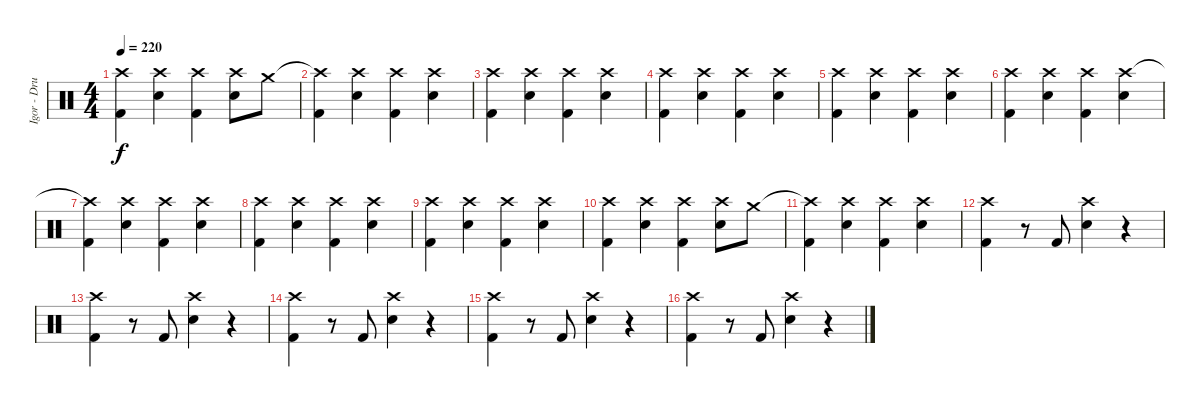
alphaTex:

\track ("Igor - Drums" "Igor - Dru") {instrument percussion}
\staff {score}
\articulation defaults
\ts (4 4)
\tempo 220
\clef neutral
\ks c
("Crash high (hit)" "Kick (hit) 2").4{dy f} ("Crash high (hit)" "Snare (hit) 2").4 ("Crash high (hit)" "Kick (hit) 2").4 ("Crash high (hit)" "Snare (hit) 2").8 "Crash medium (hit)".8 |
("Crash high (hit)"{t} "Kick (hit) 2").4 ("Crash high (hit)" "Snare (hit) 2").4 ("Crash high (hit)" "Kick (hit) 2").4 ("Crash high (hit)" "Snare (hit) 2").4 |
("Crash high (hit)" "Kick (hit) 2").4 ("Crash high (hit)" "Snare (hit) 2").4 ("Crash high (hit)" "Kick (hit) 2").4 ("Crash high (hit)" "Snare (hit) 2").4 |
("Crash high (hit)" "Kick (hit) 2").4 ("Crash high (hit)" "Snare (hit) 2").4 ("Crash high (hit)" "Kick (hit) 2").4 ("Crash high (hit)" "Snare (hit) 2").4 |
("Crash high (hit)" "Kick (hit) 2").4 ("Crash high (hit)" "Snare (hit) 2").4 ("Crash high (hit)" "Kick (hit) 2").4 ("Crash high (hit)" "Snare (hit) 2").4 |
("Crash high (hit)" "Kick (hit) 2").4 ("Crash high (hit)" "Snare (hit) 2").4 ("Crash high (hit)" "Kick (hit) 2").4 ("Crash high (hit)" "Snare (hit) 2").4 |
("Crash high (hit)"{t} "Kick (hit) 2").4 ("Crash high (hit)" "Snare (hit) 2").4 ("Crash high (hit)" "Kick (hit) 2").4 ("Crash high (hit)" "Snare (hit) 2").4 |
("Crash high (hit)" "Kick (hit) 2").4 ("Crash high (hit)" "Snare (hit) 2").4 ("Crash high (hit)" "Kick (hit) 2").4 ("Crash high (hit)" "Snare (hit) 2").4 |
("Crash high (hit)" "Kick (hit) 2").4 ("Crash high (hit)" "Snare (hit) 2").4 ("Crash high (hit)" "Kick (hit) 2").4 ("Crash high (hit)" "Snare (hit) 2").4 |
("Crash high (hit)" "Kick (hit) 2").4 ("Crash high (hit)" "Snare (hit) 2").4 ("Crash high (hit)" "Kick (hit) 2").4 ("Crash high (hit)" "Snare (hit) 2").8 "Crash medium (hit)".8 |
("Crash high (hit)"{t} "Kick (hit) 2").4 ("Crash high (hit)" "Snare (hit) 2").4 ("Crash high (hit)" "Kick (hit) 2").4 ("Crash high (hit)" "Snare (hit) 2").4 |
("Crash high (hit)" "Kick (hit) 2").4 r.8 "Kick (hit) 2".8 ("Crash high (hit)" "Snare (hit) 2").4 r.4 |
("Crash high (hit)" "Kick (hit) 2").4 r.8 "Kick (hit) 2".8 ("Crash high (hit)" "Snare (hit) 2").4 r.4 |
("Crash high (hit)" "Kick (hit) 2").4 r.8 "Kick (hit) 2".8 ("Crash high (hit)" "Snare (hit) 2").4 r.4 |
("Crash high (hit)" "Kick (hit) 2").4 r.8 "Kick (hit) 2".8 ("Crash high (hit)" "Snare (hit) 2").4 r.4 |
("Crash high (hit)" "Kick (hit) 2").4 r.8 "Kick (hit) 2".8 ("Crash high (hit)" "Snare (hit) 2").4 r.4
